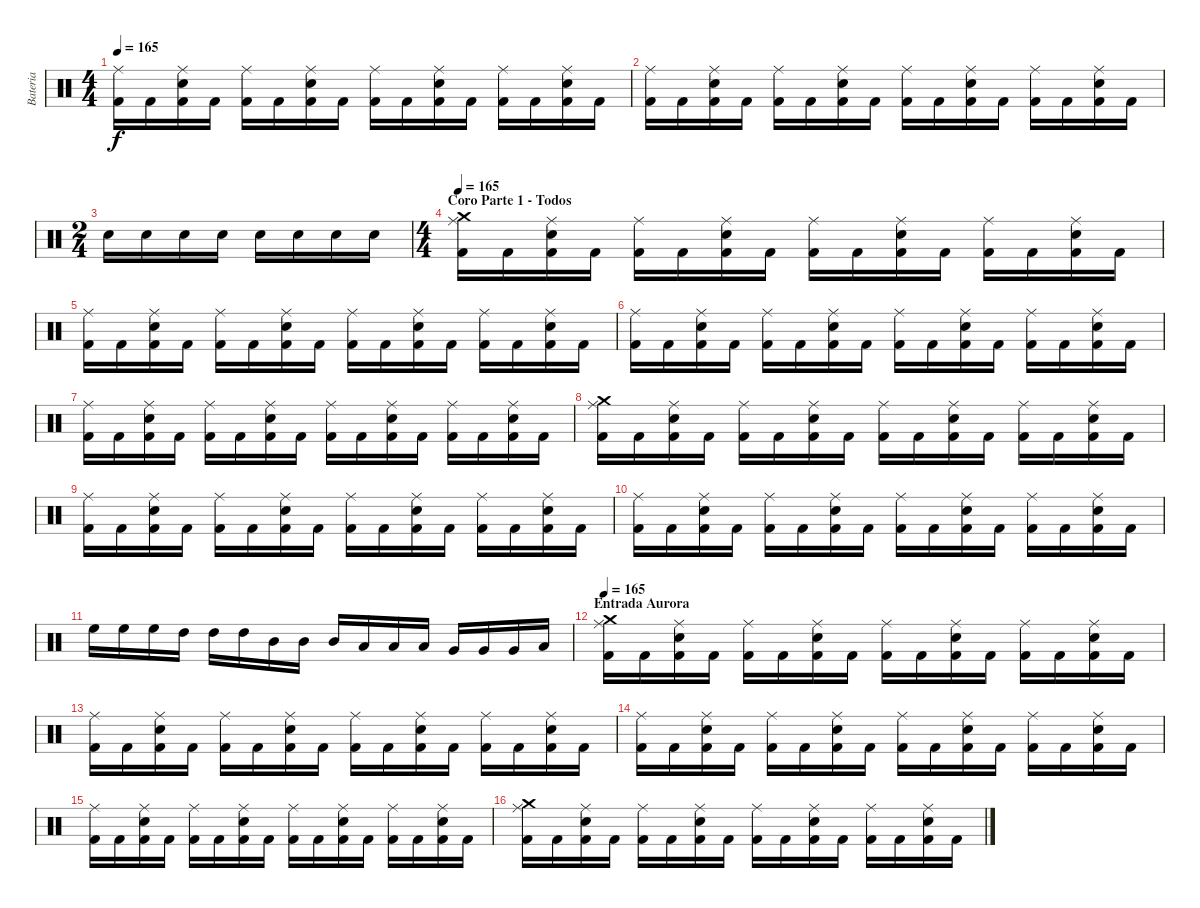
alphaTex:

\track ("Bateria" "Bateria") {instrument percussion}
\staff {score}
\articulation defaults
\ts (4 4)
\tempo 165
\clef neutral
\ks c
("Kick (hit) 2" "Ride (middle)").16{dy f} "Kick (hit) 2".16 ("Snare (hit) 2" "Ride (middle)" "Kick (hit) 2").16 "Kick (hit) 2".16 ("Kick (hit) 2" "Ride (middle)").16 "Kick (hit) 2".16 ("Snare (hit) 2" "Ride (middle)" "Kick (hit) 2").16 "Kick (hit) 2".16 ("Kick (hit) 2" "Ride (middle)").16 "Kick (hit) 2".16 ("Snare (hit) 2" "Ride (middle)" "Kick (hit) 2").16 "Kick (hit) 2".16 ("Kick (hit) 2" "Ride (middle)").16 "Kick (hit) 2".16 ("Snare (hit) 2" "Ride (middle)" "Kick (hit) 2").16 "Kick (hit) 2".16 |
("Kick (hit) 2" "Ride (middle)").16 "Kick (hit) 2".16 ("Snare (hit) 2" "Ride (middle)" "Kick (hit) 2").16 "Kick (hit) 2".16 ("Kick (hit) 2" "Ride (middle)").16 "Kick (hit) 2".16 ("Snare (hit) 2" "Ride (middle)" "Kick (hit) 2").16 "Kick (hit) 2".16 ("Kick (hit) 2" "Ride (middle)").16 "Kick (hit) 2".16 ("Snare (hit) 2" "Ride (middle)" "Kick (hit) 2").16 "Kick (hit) 2".16 ("Kick (hit) 2" "Ride (middle)").16 "Kick (hit) 2".16 ("Snare (hit) 2" "Ride (middle)" "Kick (hit) 2").16 "Kick (hit) 2".16 |
\ts (2 4)
"Snare (hit) 2".16 "Snare (hit) 2".16 "Snare (hit) 2".16 "Snare (hit) 2".16 "Snare (hit) 2".16 "Snare (hit) 2".16 "Snare (hit) 2".16 "Snare (hit) 2".16 |
\ts (4 4)
\section ("" "Coro Parte 1 - Todos")
\tempo 165
("Crash medium (hit)" "Ride (middle)" "Kick (hit) 2").16 "Kick (hit) 2".16 ("Snare (hit) 2" "Ride (middle)" "Kick (hit) 2").16 "Kick (hit) 2".16 ("Ride (middle)" "Kick (hit) 2").16 "Kick (hit) 2".16 ("Snare (hit) 2" "Ride (middle)" "Kick (hit) 2").16 "Kick (hit) 2".16 ("Ride (middle)" "Kick (hit) 2").16 "Kick (hit) 2".16 ("Snare (hit) 2" "Ride (middle)" "Kick (hit) 2").16 "Kick (hit) 2".16 ("Ride (middle)" "Kick (hit) 2").16 "Kick (hit) 2".16 ("Snare (hit) 2" "Ride (middle)" "Kick (hit) 2").16 "Kick (hit) 2".16 |
("Ride (middle)" "Kick (hit) 2").16 "Kick (hit) 2".16 ("Snare (hit) 2" "Ride (middle)" "Kick (hit) 2").16 "Kick (hit) 2".16 ("Ride (middle)" "Kick (hit) 2").16 "Kick (hit) 2".16 ("Snare (hit) 2" "Ride (middle)" "Kick (hit) 2").16 "Kick (hit) 2".16 ("Ride (middle)" "Kick (hit) 2").16 "Kick (hit) 2".16 ("Snare (hit) 2" "Ride (middle)" "Kick (hit) 2").16 "Kick (hit) 2".16 ("Ride (middle)" "Kick (hit) 2").16 "Kick (hit) 2".16 ("Snare (hit) 2" "Ride (middle)" "Kick (hit) 2").16 "Kick (hit) 2".16 |
("Ride (middle)" "Kick (hit) 2").16 "Kick (hit) 2".16 ("Snare (hit) 2" "Ride (middle)" "Kick (hit) 2").16 "Kick (hit) 2".16 ("Ride (middle)" "Kick (hit) 2").16 "Kick (hit) 2".16 ("Snare (hit) 2" "Ride (middle)" "Kick (hit) 2").16 "Kick (hit) 2".16 ("Ride (middle)" "Kick (hit) 2").16 "Kick (hit) 2".16 ("Snare (hit) 2" "Ride (middle)" "Kick (hit) 2").16 "Kick (hit) 2".16 ("Ride (middle)" "Kick (hit) 2").16 "Kick (hit) 2".16 ("Snare (hit) 2" "Ride (middle)" "Kick (hit) 2").16 "Kick (hit) 2".16 |
("Ride (middle)" "Kick (hit) 2").16 "Kick (hit) 2".16 ("Snare (hit) 2" "Ride (middle)" "Kick (hit) 2").16 "Kick (hit) 2".16 ("Ride (middle)" "Kick (hit) 2").16 "Kick (hit) 2".16 ("Snare (hit) 2" "Ride (middle)" "Kick (hit) 2").16 "Kick (hit) 2".16 ("Ride (middle)" "Kick (hit) 2").16 "Kick (hit) 2".16 ("Snare (hit) 2" "Ride (middle)" "Kick (hit) 2").16 "Kick (hit) 2".16 ("Ride (middle)" "Kick (hit) 2").16 "Kick (hit) 2".16 ("Snare (hit) 2" "Ride (middle)" "Kick (hit) 2").16 "Kick (hit) 2".16 |
("Crash medium (hit)" "Ride (middle)" "Kick (hit) 2").16 "Kick (hit) 2".16 ("Snare (hit) 2" "Ride (middle)" "Kick (hit) 2").16 "Kick (hit) 2".16 ("Ride (middle)" "Kick (hit) 2").16 "Kick (hit) 2".16 ("Snare (hit) 2" "Ride (middle)" "Kick (hit) 2").16 "Kick (hit) 2".16 ("Ride (middle)" "Kick (hit) 2").16 "Kick (hit) 2".16 ("Snare (hit) 2" "Ride (middle)" "Kick (hit) 2").16 "Kick (hit) 2".16 ("Ride (middle)" "Kick (hit) 2").16 "Kick (hit) 2".16 ("Snare (hit) 2" "Ride (middle)" "Kick (hit) 2").16 "Kick (hit) 2".16 |
("Ride (middle)" "Kick (hit) 2").16 "Kick (hit) 2".16 ("Snare (hit) 2" "Ride (middle)" "Kick (hit) 2").16 "Kick (hit) 2".16 ("Ride (middle)" "Kick (hit) 2").16 "Kick (hit) 2".16 ("Snare (hit) 2" "Ride (middle)" "Kick (hit) 2").16 "Kick (hit) 2".16 ("Ride (middle)" "Kick (hit) 2").16 "Kick (hit) 2".16 ("Snare (hit) 2" "Ride (middle)" "Kick (hit) 2").16 "Kick (hit) 2".16 ("Ride (middle)" "Kick (hit) 2").16 "Kick (hit) 2".16 ("Snare (hit) 2" "Ride (middle)" "Kick (hit) 2").16 "Kick (hit) 2".16 |
("Ride (middle)" "Kick (hit) 2").16 "Kick (hit) 2".16 ("Snare (hit) 2" "Ride (middle)" "Kick (hit) 2").16 "Kick (hit) 2".16 ("Ride (middle)" "Kick (hit) 2").16 "Kick (hit) 2".16 ("Snare (hit) 2" "Ride (middle)" "Kick (hit) 2").16 "Kick (hit) 2".16 ("Ride (middle)" "Kick (hit) 2").16 "Kick (hit) 2".16 ("Snare (hit) 2" "Ride (middle)" "Kick (hit) 2").16 "Kick (hit) 2".16 ("Ride (middle)" "Kick (hit) 2").16 "Kick (hit) 2".16 ("Snare (hit) 2" "Ride (middle)" "Kick (hit) 2").16 "Kick (hit) 2".16 |
"High Floor Tom (hit)".16 "High Floor Tom (hit)".16 "High Floor Tom (hit)".16 "High Tom (hit)".16 "High Tom (hit)".16 "High Tom (hit)".16 "Mid Tom (hit)".16 "Mid Tom (hit)".16 "Mid Tom (hit)".16 "Low Tom (hit)".16 "Low Tom (hit)".16 "Low Tom (hit)".16 "Very Low Tom (hit)".16 "Very Low Tom (hit)".16 "Very Low Tom (hit)".16 "Low Floor Tom (hit)".16 |
\section ("" "Entrada Aurora")
\tempo 165
("Crash medium (hit)" "Ride (middle)" "Kick (hit) 2").16 "Kick (hit) 2".16 ("Snare (hit) 2" "Ride (middle)" "Kick (hit) 2").16 "Kick (hit) 2".16 ("Ride (middle)" "Kick (hit) 2").16 "Kick (hit) 2".16 ("Snare (hit) 2" "Ride (middle)" "Kick (hit) 2").16 "Kick (hit) 2".16 ("Ride (middle)" "Kick (hit) 2").16 "Kick (hit) 2".16 ("Snare (hit) 2" "Ride (middle)" "Kick (hit) 2").16 "Kick (hit) 2".16 ("Ride (middle)" "Kick (hit) 2").16 "Kick (hit) 2".16 ("Snare (hit) 2" "Ride (middle)" "Kick (hit) 2").16 "Kick (hit) 2".16 |
("Ride (middle)" "Kick (hit) 2").16 "Kick (hit) 2".16 ("Snare (hit) 2" "Ride (middle)" "Kick (hit) 2").16 "Kick (hit) 2".16 ("Ride (middle)" "Kick (hit) 2").16 "Kick (hit) 2".16 ("Snare (hit) 2" "Ride (middle)" "Kick (hit) 2").16 "Kick (hit) 2".16 ("Ride (middle)" "Kick (hit) 2").16 "Kick (hit) 2".16 ("Snare (hit) 2" "Ride (middle)" "Kick (hit) 2").16 "Kick (hit) 2".16 ("Ride (middle)" "Kick (hit) 2").16 "Kick (hit) 2".16 ("Snare (hit) 2" "Ride (middle)" "Kick (hit) 2").16 "Kick (hit) 2".16 |
("Ride (middle)" "Kick (hit) 2").16 "Kick (hit) 2".16 ("Snare (hit) 2" "Ride (middle)" "Kick (hit) 2").16 "Kick (hit) 2".16 ("Ride (middle)" "Kick (hit) 2").16 "Kick (hit) 2".16 ("Snare (hit) 2" "Ride (middle)" "Kick (hit) 2").16 "Kick (hit) 2".16 ("Ride (middle)" "Kick (hit) 2").16 "Kick (hit) 2".16 ("Snare (hit) 2" "Ride (middle)" "Kick (hit) 2").16 "Kick (hit) 2".16 ("Ride (middle)" "Kick (hit) 2").16 "Kick (hit) 2".16 ("Snare (hit) 2" "Ride (middle)" "Kick (hit) 2").16 "Kick (hit) 2".16 |
("Ride (middle)" "Kick (hit) 2").16 "Kick (hit) 2".16 ("Snare (hit) 2" "Ride (middle)" "Kick (hit) 2").16 "Kick (hit) 2".16 ("Ride (middle)" "Kick (hit) 2").16 "Kick (hit) 2".16 ("Snare (hit) 2" "Ride (middle)" "Kick (hit) 2").16 "Kick (hit) 2".16 ("Ride (middle)" "Kick (hit) 2").16 "Kick (hit) 2".16 ("Snare (hit) 2" "Ride (middle)" "Kick (hit) 2").16 "Kick (hit) 2".16 ("Ride (middle)" "Kick (hit) 2").16 "Kick (hit) 2".16 ("Snare (hit) 2" "Ride (middle)" "Kick (hit) 2").16 "Kick (hit) 2".16 |
("Crash medium (hit)" "Ride (middle)" "Kick (hit) 2").16 "Kick (hit) 2".16 ("Snare (hit) 2" "Ride (middle)" "Kick (hit) 2").16 "Kick (hit) 2".16 ("Ride (middle)" "Kick (hit) 2").16 "Kick (hit) 2".16 ("Snare (hit) 2" "Ride (middle)" "Kick (hit) 2").16 "Kick (hit) 2".16 ("Ride (middle)" "Kick (hit) 2").16 "Kick (hit) 2".16 ("Snare (hit) 2" "Ride (middle)" "Kick (hit) 2").16 "Kick (hit) 2".16 ("Ride (middle)" "Kick (hit) 2").16 "Kick (hit) 2".16 ("Snare (hit) 2" "Ride (middle)" "Kick (hit) 2").16 "Kick (hit) 2".16
